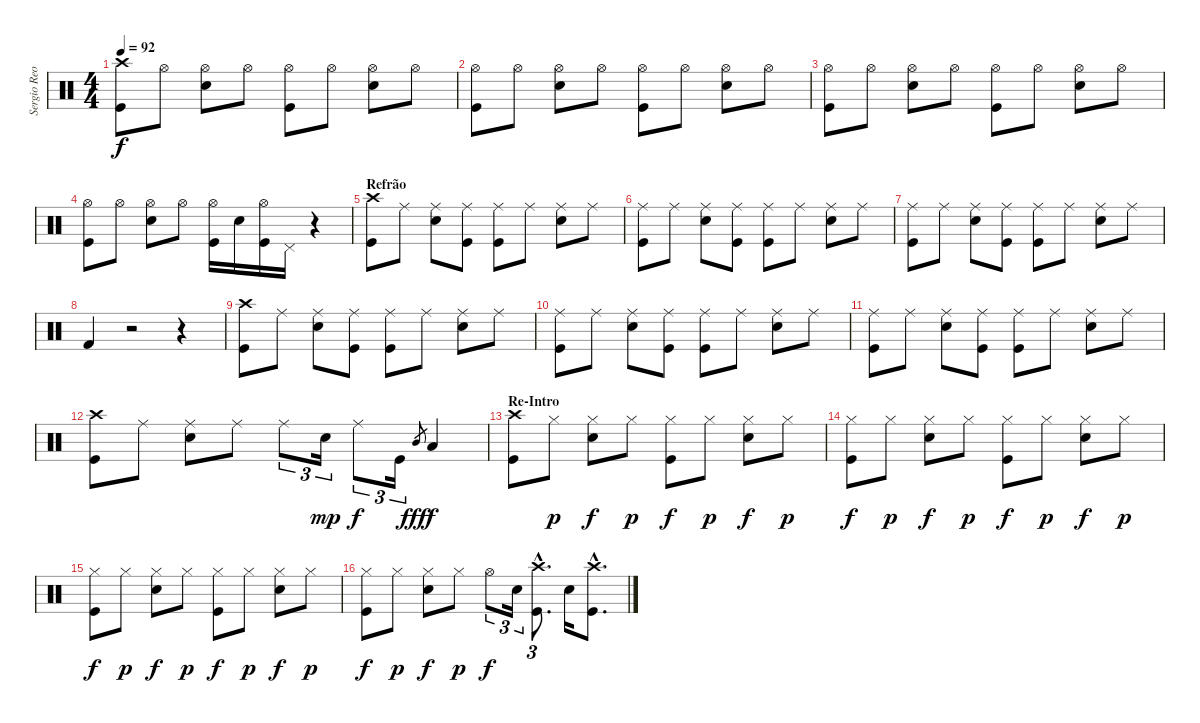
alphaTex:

\track ("Sergio Reoli" "Sergio Reo") {instrument percussion}
\staff {score}
\articulation defaults
\ts (4 4)
\tempo 92
\clef neutral
\ks c
("Crash high (hit)" "Kick (hit)").8{dy f} "Hi-Hat (open)".8 ("Hi-Hat (open)" "Electric Snare (hit)").8 "Hi-Hat (open)".8 ("Hi-Hat (open)" "Kick (hit)").8 "Hi-Hat (open)".8 ("Hi-Hat (open)" "Electric Snare (hit)").8 "Hi-Hat (open)".8 |
("Hi-Hat (open)" "Kick (hit)").8 "Hi-Hat (open)".8 ("Hi-Hat (open)" "Electric Snare (hit)").8 "Hi-Hat (open)".8 ("Hi-Hat (open)" "Kick (hit)").8 "Hi-Hat (open)".8 ("Hi-Hat (open)" "Electric Snare (hit)").8 "Hi-Hat (open)".8 |
("Hi-Hat (open)" "Kick (hit)").8 "Hi-Hat (open)".8 ("Hi-Hat (open)" "Electric Snare (hit)").8 "Hi-Hat (open)".8 ("Hi-Hat (open)" "Kick (hit)").8 "Hi-Hat (open)".8 ("Hi-Hat (open)" "Electric Snare (hit)").8 "Hi-Hat (open)".8 |
("Hi-Hat (open)" "Kick (hit)").8 "Hi-Hat (open)".8 ("Hi-Hat (open)" "Electric Snare (hit)").8 "Hi-Hat (open)".8 ("Hi-Hat (open)" "Kick (hit)").16 "Electric Snare (hit)".16 ("Hi-Hat (open)" "Kick (hit)").16 "Pedal Hi-Hat (hit)".16 r.4 |
\section ("" "Refrão")
("Crash high (hit)" "Kick (hit)").8 "Ride (middle)".8 ("Ride (middle)" "Electric Snare (hit)").8 ("Ride (middle)" "Kick (hit)").8 ("Ride (middle)" "Kick (hit)").8 "Ride (middle)".8 ("Ride (middle)" "Electric Snare (hit)").8 "Ride (middle)".8 |
("Ride (middle)" "Kick (hit)").8 "Ride (middle)".8 ("Ride (middle)" "Electric Snare (hit)").8 ("Ride (middle)" "Kick (hit)").8 ("Ride (middle)" "Kick (hit)").8 "Ride (middle)".8 ("Ride (middle)" "Electric Snare (hit)").8 "Ride (middle)".8 |
("Ride (middle)" "Kick (hit)").8 "Ride (middle)".8 ("Ride (middle)" "Electric Snare (hit)").8 ("Ride (middle)" "Kick (hit)").8 ("Ride (middle)" "Kick (hit)").8 "Ride (middle)".8 ("Ride (middle)" "Electric Snare (hit)").8 "Ride (middle)".8 |
"Kick (hit) 2".4 r.2 r.4 |
("Crash high (hit)" "Kick (hit)").8 "Ride (middle)".8 ("Ride (middle)" "Electric Snare (hit)").8 ("Ride (middle)" "Kick (hit)").8 ("Ride (middle)" "Kick (hit)").8 "Ride (middle)".8 ("Ride (middle)" "Electric Snare (hit)").8 "Ride (middle)".8 |
("Ride (middle)" "Kick (hit)").8 "Ride (middle)".8 ("Ride (middle)" "Electric Snare (hit)").8 ("Ride (middle)" "Kick (hit)").8 ("Ride (middle)" "Kick (hit)").8 "Ride (middle)".8 ("Ride (middle)" "Electric Snare (hit)").8 "Ride (middle)".8 |
("Ride (middle)" "Kick (hit)").8 "Ride (middle)".8 ("Ride (middle)" "Electric Snare (hit)").8 ("Ride (middle)" "Kick (hit)").8 ("Ride (middle)" "Kick (hit)").8 "Ride (middle)".8 ("Ride (middle)" "Electric Snare (hit)").8 "Ride (middle)".8 |
("Crash high (hit)" "Kick (hit)").8 "Ride (middle)".8 ("Ride (middle)" "Electric Snare (hit)").8 "Ride (middle)".8 "Ride (middle)".8{tu (3 2)} "Electric Snare (hit)".16{tu (3 2) dy mp} "Ride (middle)".8{tu (3 2) dy f} "Kick (hit)".16{tu (3 2)} "Mid Tom (hit)".8{gr dy fff} "Low Tom (hit)".4{dy f} |
\section ("" "Re-Intro")
("Crash high (hit)" "Kick (hit)").8 "Hi-Hat (closed)".8{dy p} ("Hi-Hat (closed)" "Electric Snare (hit)").8{dy f} "Hi-Hat (closed)".8{dy p} ("Hi-Hat (closed)" "Kick (hit)").8{dy f} "Hi-Hat (closed)".8{dy p} ("Hi-Hat (closed)" "Electric Snare (hit)").8{dy f} "Hi-Hat (closed)".8{dy p} |
("Hi-Hat (closed)" "Kick (hit)").8{dy f} "Hi-Hat (closed)".8{dy p} ("Hi-Hat (closed)" "Electric Snare (hit)").8{dy f} "Hi-Hat (closed)".8{dy p} ("Hi-Hat (closed)" "Kick (hit)").8{dy f} "Hi-Hat (closed)".8{dy p} ("Hi-Hat (closed)" "Electric Snare (hit)").8{dy f} "Hi-Hat (closed)".8{dy p} |
("Hi-Hat (closed)" "Kick (hit)").8{dy f} "Hi-Hat (closed)".8{dy p} ("Hi-Hat (closed)" "Electric Snare (hit)").8{dy f} "Hi-Hat (closed)".8{dy p} ("Hi-Hat (closed)" "Kick (hit)").8{dy f} "Hi-Hat (closed)".8{dy p} ("Hi-Hat (closed)" "Electric Snare (hit)").8{dy f} "Hi-Hat (closed)".8{dy p} |
("Hi-Hat (closed)" "Kick (hit)").8{dy f} "Hi-Hat (closed)".8{dy p} ("Hi-Hat (closed)" "Electric Snare (hit)").8{dy f} "Hi-Hat (closed)".8{dy p} "Hi-Hat (open)".8{tu (3 2) dy f} "Electric Snare (hit)".16{tu (3 2)} ("Crash high (hit)"{hac} "Kick (hit)"{hac}).8{d tu (3 2)} "Electric Snare (hit)".16 ("Crash high (hit)"{hac} "Kick (hit)"{hac}).8{d}
